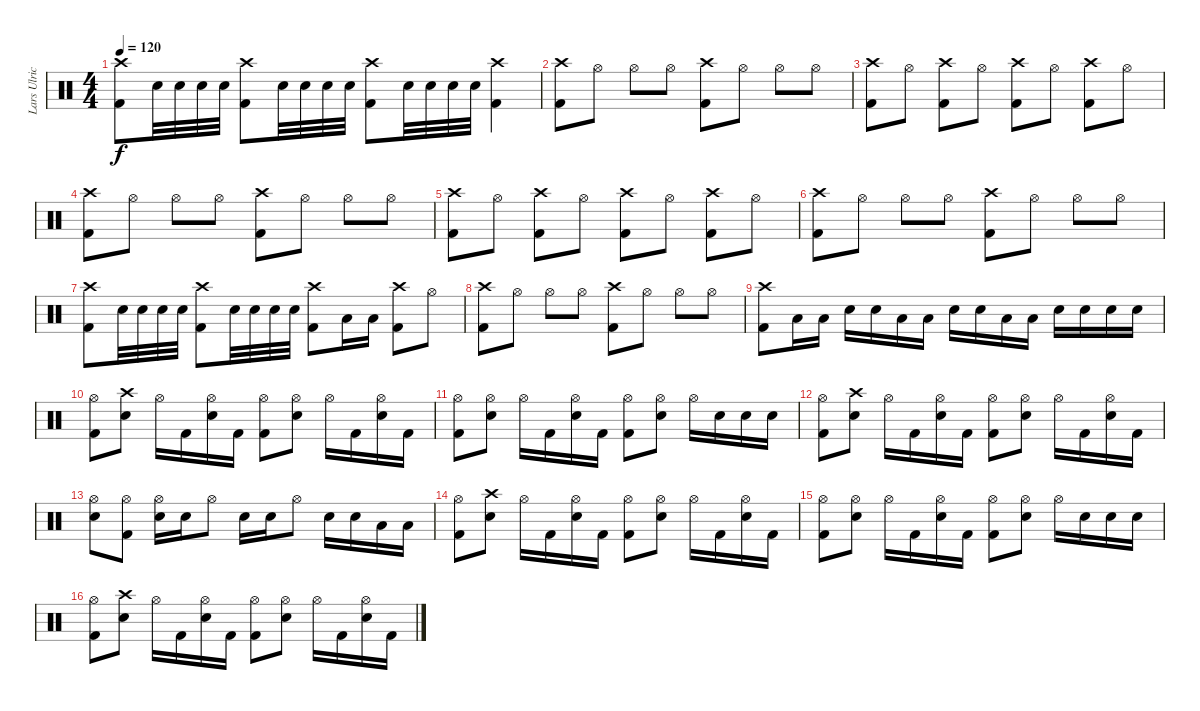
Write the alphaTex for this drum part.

\track ("Lars Ulrich" "Lars Ulric") {instrument percussion}
\staff {score}
\articulation defaults
\ts (4 4)
\tempo 120
\clef neutral
\ks c
("Kick (hit) 2" "Crash high (hit)").8{dy f} "Electric Snare (hit)".32 "Electric Snare (hit)".32 "Electric Snare (hit)".32 "Electric Snare (hit)".32 ("Kick (hit) 2" "Crash high (hit)").8 "Electric Snare (hit)".32 "Electric Snare (hit)".32 "Electric Snare (hit)".32 "Electric Snare (hit)".32 ("Kick (hit) 2" "Crash high (hit)").8 "Electric Snare (hit)".32 "Electric Snare (hit)".32 "Electric Snare (hit)".32 "Electric Snare (hit)".32 ("Kick (hit) 2" "Crash high (hit)").4 |
("Crash high (hit)" "Kick (hit) 2").8 "Hi-Hat (open)".8 "Hi-Hat (open)".8 "Hi-Hat (open)".8 ("Crash high (hit)" "Kick (hit) 2").8 "Hi-Hat (open)".8 "Hi-Hat (open)".8 "Hi-Hat (open)".8 |
("Crash high (hit)" "Kick (hit) 2").8 "Hi-Hat (open)".8 ("Crash high (hit)" "Kick (hit) 2").8 "Hi-Hat (open)".8 ("Crash high (hit)" "Kick (hit) 2").8 "Hi-Hat (open)".8 ("Crash high (hit)" "Kick (hit) 2").8 "Hi-Hat (open)".8 |
("Crash high (hit)" "Kick (hit) 2").8 "Hi-Hat (open)".8 "Hi-Hat (open)".8 "Hi-Hat (open)".8 ("Crash high (hit)" "Kick (hit) 2").8 "Hi-Hat (open)".8 "Hi-Hat (open)".8 "Hi-Hat (open)".8 |
("Crash high (hit)" "Kick (hit) 2").8 "Hi-Hat (open)".8 ("Crash high (hit)" "Kick (hit) 2").8 "Hi-Hat (open)".8 ("Crash high (hit)" "Kick (hit) 2").8 "Hi-Hat (open)".8 ("Crash high (hit)" "Kick (hit) 2").8 "Hi-Hat (open)".8 |
("Crash high (hit)" "Kick (hit) 2").8 "Hi-Hat (open)".8 "Hi-Hat (open)".8 "Hi-Hat (open)".8 ("Crash high (hit)" "Kick (hit) 2").8 "Hi-Hat (open)".8 "Hi-Hat (open)".8 "Hi-Hat (open)".8 |
("Crash high (hit)" "Kick (hit) 2").8 "Electric Snare (hit)".32 "Electric Snare (hit)".32 "Electric Snare (hit)".32 "Electric Snare (hit)".32 ("Crash high (hit)" "Kick (hit) 2").8 "Electric Snare (hit)".32 "Electric Snare (hit)".32 "Electric Snare (hit)".32 "Electric Snare (hit)".32 ("Crash high (hit)" "Kick (hit) 2").8 "Low Tom (hit)".16 "Low Tom (hit)".16 ("Crash high (hit)" "Kick (hit) 2").8 "Hi-Hat (open)".8 |
("Crash high (hit)" "Kick (hit) 2").8 "Hi-Hat (open)".8 "Hi-Hat (open)".8 "Hi-Hat (open)".8 ("Crash high (hit)" "Kick (hit) 2").8 "Hi-Hat (open)".8 "Hi-Hat (open)".8 "Hi-Hat (open)".8 |
("Crash high (hit)" "Kick (hit) 2").8 "Low Tom (hit)".16 "Low Tom (hit)".16 "Electric Snare (hit)".16 "Electric Snare (hit)".16 "Low Tom (hit)".16 "Low Tom (hit)".16 "Electric Snare (hit)".16 "Electric Snare (hit)".16 "Low Tom (hit)".16 "Low Tom (hit)".16 "Electric Snare (hit)".16 "Electric Snare (hit)".16 "Electric Snare (hit)".16 "Electric Snare (hit)".16 |
("Hi-Hat (open)" "Kick (hit) 2").8 ("Crash high (hit)" "Electric Snare (hit)").8 "Hi-Hat (open)".16 "Kick (hit) 2".16 ("Hi-Hat (open)" "Electric Snare (hit)").16 "Kick (hit) 2".16 ("Hi-Hat (open)" "Kick (hit) 2").8 ("Hi-Hat (open)" "Electric Snare (hit)").8 "Hi-Hat (open)".16 "Kick (hit) 2".16 ("Hi-Hat (open)" "Electric Snare (hit)").16 "Kick (hit) 2".16 |
("Hi-Hat (open)" "Kick (hit) 2").8 ("Hi-Hat (open)" "Electric Snare (hit)").8 "Hi-Hat (open)".16 "Kick (hit) 2".16 ("Hi-Hat (open)" "Electric Snare (hit)").16 "Kick (hit) 2".16 ("Hi-Hat (open)" "Kick (hit) 2").8 ("Hi-Hat (open)" "Electric Snare (hit)").8 "Hi-Hat (open)".16 "Electric Snare (hit)".16 "Electric Snare (hit)".16 "Electric Snare (hit)".16 |
("Hi-Hat (open)" "Kick (hit) 2").8 ("Crash high (hit)" "Electric Snare (hit)").8 "Hi-Hat (open)".16 "Kick (hit) 2".16 ("Hi-Hat (open)" "Electric Snare (hit)").16 "Kick (hit) 2".16 ("Hi-Hat (open)" "Kick (hit) 2").8 ("Hi-Hat (open)" "Electric Snare (hit)").8 "Hi-Hat (open)".16 "Kick (hit) 2".16 ("Hi-Hat (open)" "Electric Snare (hit)").16 "Kick (hit) 2".16 |
("Hi-Hat (open)" "Electric Snare (hit)").8 ("Hi-Hat (open)" "Kick (hit) 2").8 ("Hi-Hat (open)" "Electric Snare (hit)").16 "Electric Snare (hit)".16 "Hi-Hat (open)".8 "Electric Snare (hit)".16 "Electric Snare (hit)".16 "Hi-Hat (open)".8 "Electric Snare (hit)".16 "Electric Snare (hit)".16 "Low Tom (hit)".16 "Low Tom (hit)".16 |
("Hi-Hat (open)" "Kick (hit) 2").8 ("Crash high (hit)" "Electric Snare (hit)").8 "Hi-Hat (open)".16 "Kick (hit) 2".16 ("Hi-Hat (open)" "Electric Snare (hit)").16 "Kick (hit) 2".16 ("Hi-Hat (open)" "Kick (hit) 2").8 ("Hi-Hat (open)" "Electric Snare (hit)").8 "Hi-Hat (open)".16 "Kick (hit) 2".16 ("Hi-Hat (open)" "Electric Snare (hit)").16 "Kick (hit) 2".16 |
("Hi-Hat (open)" "Kick (hit) 2").8 ("Hi-Hat (open)" "Electric Snare (hit)").8 "Hi-Hat (open)".16 "Kick (hit) 2".16 ("Hi-Hat (open)" "Electric Snare (hit)").16 "Kick (hit) 2".16 ("Hi-Hat (open)" "Kick (hit) 2").8 ("Hi-Hat (open)" "Electric Snare (hit)").8 "Hi-Hat (open)".16 "Electric Snare (hit)".16 "Electric Snare (hit)".16 "Electric Snare (hit)".16 |
("Hi-Hat (open)" "Kick (hit) 2").8 ("Crash high (hit)" "Electric Snare (hit)").8 "Hi-Hat (open)".16 "Kick (hit) 2".16 ("Hi-Hat (open)" "Electric Snare (hit)").16 "Kick (hit) 2".16 ("Hi-Hat (open)" "Kick (hit) 2").8 ("Hi-Hat (open)" "Electric Snare (hit)").8 "Hi-Hat (open)".16 "Kick (hit) 2".16 ("Hi-Hat (open)" "Electric Snare (hit)").16 "Kick (hit) 2".16
